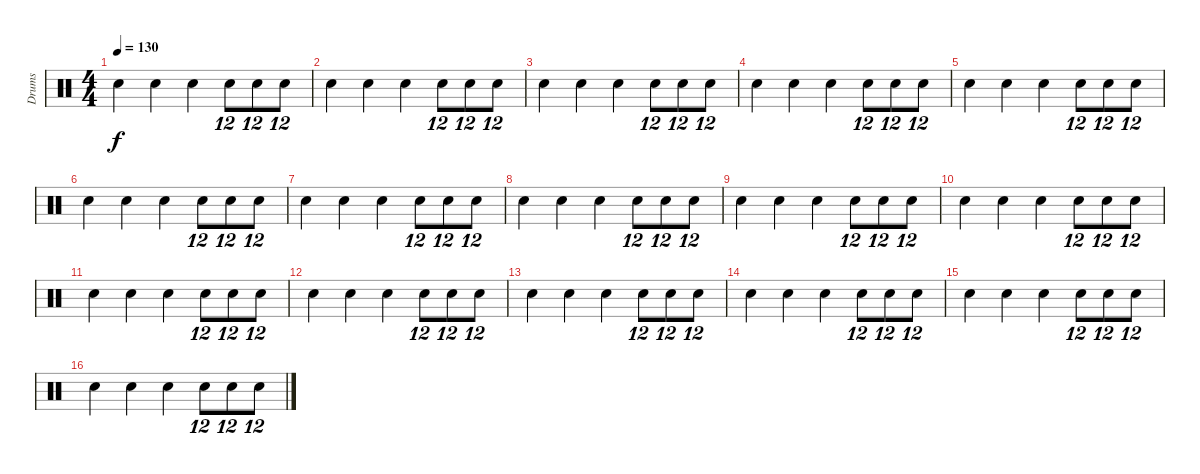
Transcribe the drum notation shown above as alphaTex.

\track ("Drums " "Drums ") {instrument percussion}
\staff {score}
\articulation defaults
\ts (4 4)
\tempo 130
\clef neutral
\ks c "Electric Snare (hit)".4{dy f} "Electric Snare (hit)".4 "Electric Snare (hit)".4 "Electric Snare (hit)".8{tu (12 8)} "Electric Snare (hit)".8{tu (12 8)} "Electric Snare (hit)".8{tu (12 8)}
|
"Electric Snare (hit)".4 "Electric Snare (hit)".4 "Electric Snare (hit)".4 "Electric Snare (hit)".8{tu (12 8)} "Electric Snare (hit)".8{tu (12 8)} "Electric Snare (hit)".8{tu (12 8)} |
"Electric Snare (hit)".4 "Electric Snare (hit)".4 "Electric Snare (hit)".4 "Electric Snare (hit)".8{tu (12 8)} "Electric Snare (hit)".8{tu (12 8)} "Electric Snare (hit)".8{tu (12 8)} |
"Electric Snare (hit)".4 "Electric Snare (hit)".4 "Electric Snare (hit)".4 "Electric Snare (hit)".8{tu (12 8)} "Electric Snare (hit)".8{tu (12 8)} "Electric Snare (hit)".8{tu (12 8)} |
"Electric Snare (hit)".4 "Electric Snare (hit)".4 "Electric Snare (hit)".4 "Electric Snare (hit)".8{tu (12 8)} "Electric Snare (hit)".8{tu (12 8)} "Electric Snare (hit)".8{tu (12 8)} |
"Electric Snare (hit)".4 "Electric Snare (hit)".4 "Electric Snare (hit)".4 "Electric Snare (hit)".8{tu (12 8)} "Electric Snare (hit)".8{tu (12 8)} "Electric Snare (hit)".8{tu (12 8)} |
"Electric Snare (hit)".4 "Electric Snare (hit)".4 "Electric Snare (hit)".4 "Electric Snare (hit)".8{tu (12 8)} "Electric Snare (hit)".8{tu (12 8)} "Electric Snare (hit)".8{tu (12 8)} |
"Electric Snare (hit)".4 "Electric Snare (hit)".4 "Electric Snare (hit)".4 "Electric Snare (hit)".8{tu (12 8)} "Electric Snare (hit)".8{tu (12 8)} "Electric Snare (hit)".8{tu (12 8)} |
"Electric Snare (hit)".4 "Electric Snare (hit)".4 "Electric Snare (hit)".4 "Electric Snare (hit)".8{tu (12 8)} "Electric Snare (hit)".8{tu (12 8)} "Electric Snare (hit)".8{tu (12 8)} |
"Electric Snare (hit)".4 "Electric Snare (hit)".4 "Electric Snare (hit)".4 "Electric Snare (hit)".8{tu (12 8)} "Electric Snare (hit)".8{tu (12 8)} "Electric Snare (hit)".8{tu (12 8)} |
"Electric Snare (hit)".4 "Electric Snare (hit)".4 "Electric Snare (hit)".4 "Electric Snare (hit)".8{tu (12 8)} "Electric Snare (hit)".8{tu (12 8)} "Electric Snare (hit)".8{tu (12 8)} |
"Electric Snare (hit)".4 "Electric Snare (hit)".4 "Electric Snare (hit)".4 "Electric Snare (hit)".8{tu (12 8)} "Electric Snare (hit)".8{tu (12 8)} "Electric Snare (hit)".8{tu (12 8)} |
"Electric Snare (hit)".4 "Electric Snare (hit)".4 "Electric Snare (hit)".4 "Electric Snare (hit)".8{tu (12 8)} "Electric Snare (hit)".8{tu (12 8)} "Electric Snare (hit)".8{tu (12 8)} |
"Electric Snare (hit)".4 "Electric Snare (hit)".4 "Electric Snare (hit)".4 "Electric Snare (hit)".8{tu (12 8)} "Electric Snare (hit)".8{tu (12 8)} "Electric Snare (hit)".8{tu (12 8)} |
"Electric Snare (hit)".4 "Electric Snare (hit)".4 "Electric Snare (hit)".4 "Electric Snare (hit)".8{tu (12 8)} "Electric Snare (hit)".8{tu (12 8)} "Electric Snare (hit)".8{tu (12 8)} |
"Electric Snare (hit)".4 "Electric Snare (hit)".4 "Electric Snare (hit)".4 "Electric Snare (hit)".8{tu (12 8)} "Electric Snare (hit)".8{tu (12 8)} "Electric Snare (hit)".8{tu (12 8)}
